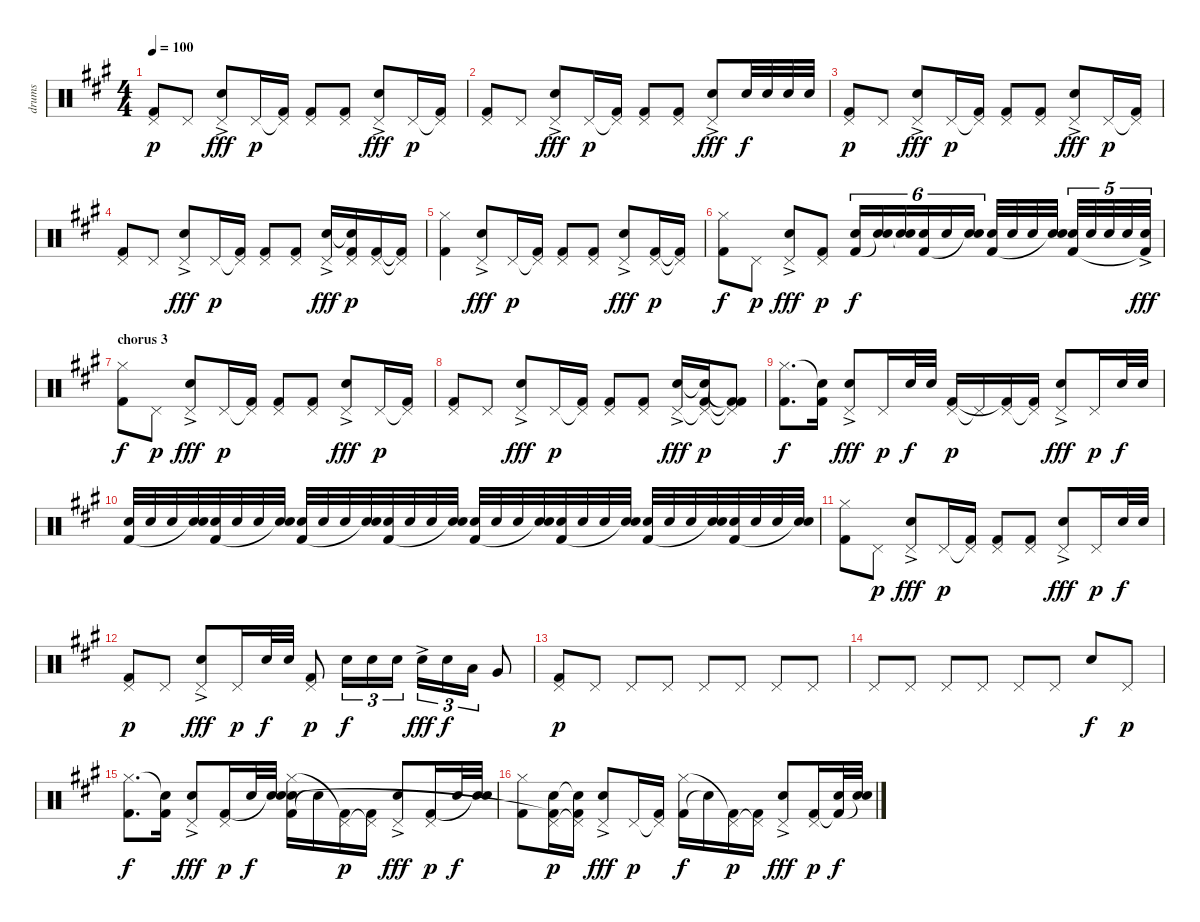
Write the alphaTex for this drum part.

\track ("drums" "drums") {instrument percussion}
\staff {score}
\articulation defaults
\ts (4 4)
\tempo 100
\clef neutral
\ks a
("Pedal Hi-Hat (hit)" "Kick (hit) 2").8{dy p} "Pedal Hi-Hat (hit)".8 ("Pedal Hi-Hat (hit)" "Snare (hit) 2"{ac}).8{dy fff} "Pedal Hi-Hat (hit)".16{dy p} ("Pedal Hi-Hat (hit)"{t} "Kick (hit) 2").16 ("Pedal Hi-Hat (hit)" "Kick (hit) 2").8 ("Pedal Hi-Hat (hit)" "Kick (hit) 2").8 ("Pedal Hi-Hat (hit)" "Snare (hit) 2"{ac}).8{dy fff} "Pedal Hi-Hat (hit)".16{dy p} ("Pedal Hi-Hat (hit)"{t} "Kick (hit) 2").16 |
("Pedal Hi-Hat (hit)" "Kick (hit) 2").8 "Pedal Hi-Hat (hit)".8 ("Pedal Hi-Hat (hit)" "Snare (hit) 2"{ac}).8{dy fff} "Pedal Hi-Hat (hit)".16{dy p} ("Pedal Hi-Hat (hit)"{t} "Kick (hit) 2").16 ("Pedal Hi-Hat (hit)" "Kick (hit) 2").8 ("Pedal Hi-Hat (hit)" "Kick (hit) 2").8 ("Pedal Hi-Hat (hit)" "Snare (hit) 2"{ac}).8{dy fff} "Snare (hit) 2".32{dy f} "Snare (hit) 2".32 "Snare (hit) 2".32 "Snare (hit) 2".32 |
("Pedal Hi-Hat (hit)" "Kick (hit) 2").8{dy p} "Pedal Hi-Hat (hit)".8 ("Pedal Hi-Hat (hit)" "Snare (hit) 2"{ac}).8{dy fff} "Pedal Hi-Hat (hit)".16{dy p} ("Pedal Hi-Hat (hit)"{t} "Kick (hit) 2").16 ("Pedal Hi-Hat (hit)" "Kick (hit) 2").8 ("Pedal Hi-Hat (hit)" "Kick (hit) 2").8 ("Pedal Hi-Hat (hit)" "Snare (hit) 2"{ac}).8{dy fff} "Pedal Hi-Hat (hit)".16{dy p} ("Pedal Hi-Hat (hit)"{t} "Kick (hit) 2").16 |
("Pedal Hi-Hat (hit)" "Kick (hit) 2").8 "Pedal Hi-Hat (hit)".8 ("Pedal Hi-Hat (hit)" "Snare (hit) 2"{ac}).8{dy fff} "Pedal Hi-Hat (hit)".16{dy p} ("Pedal Hi-Hat (hit)"{t} "Kick (hit) 2").16 ("Pedal Hi-Hat (hit)" "Kick (hit) 2").8 ("Pedal Hi-Hat (hit)" "Kick (hit) 2").8 ("Pedal Hi-Hat (hit)" "Snare (hit) 2"{ac}).16{dy fff} ("Pedal Hi-Hat (hit)" "Snare (hit)"{t} "Kick (hit) 2").16{dy p} ("Pedal Hi-Hat (hit)" "Kick (hit) 2").16 ("Pedal Hi-Hat (hit)"{t} "Kick (hit) 2"{t}).16 |
("Hi-Hat (closed)" "Kick (hit) 2").4 ("Pedal Hi-Hat (hit)" "Snare (hit) 2"{ac}).8{dy fff} "Pedal Hi-Hat (hit)".16{dy p} ("Pedal Hi-Hat (hit)"{t} "Kick (hit) 2").16 ("Pedal Hi-Hat (hit)" "Kick (hit) 2").8 ("Pedal Hi-Hat (hit)" "Kick (hit) 2").8 ("Pedal Hi-Hat (hit)" "Snare (hit) 2"{ac}).8{dy fff} ("Pedal Hi-Hat (hit)" "Kick (hit) 2").16{dy p} ("Pedal Hi-Hat (hit)"{t} "Kick (hit) 2"{t}).16 |
("Hi-Hat (closed)" "Kick (hit) 2").8{dy f} "Pedal Hi-Hat (hit)".8{dy p} ("Pedal Hi-Hat (hit)" "Snare (hit) 2"{ac}).8{dy fff} ("Pedal Hi-Hat (hit)" "Kick (hit) 2").8{dy p} ("Snare (hit) 2" "Kick (hit) 2").16{tu (6 4) dy f} ("Snare (hit) 2" "Snare (hit)"{t}).16{tu (6 4)} ("Snare (hit) 2" "Snare (hit)"{t}).16{tu (6 4)} ("Snare (hit) 2" "Kick (hit) 2").16{tu (6 4)} "Snare (hit) 2".16{tu (6 4)} ("Snare (hit) 2" "Snare (hit)"{t}).16{tu (6 4)} ("Snare (hit) 2" "Kick (hit) 2").32 "Snare (hit) 2".32 "Snare (hit) 2".32 ("Snare (hit) 2" "Snare (hit)"{t}).32 ("Snare (hit) 2" "Kick (hit) 2").32{tu (5 4)} "Snare (hit) 2".32{tu (5 4)} "Snare (hit) 2".32{tu (5 4)} "Snare (hit) 2".32{tu (5 4)} ("Snare (hit) 2"{ac} "Kick (hit) 2"{t}).32{tu (5 4) dy fff} |
\section ("" "chorus 3")
("Hi-Hat (closed)" "Kick (hit) 2").8{dy f} "Pedal Hi-Hat (hit)".8{dy p} ("Pedal Hi-Hat (hit)" "Snare (hit) 2"{ac}).8{dy fff} "Pedal Hi-Hat (hit)".16{dy p} ("Pedal Hi-Hat (hit)"{t} "Kick (hit) 2").16 ("Pedal Hi-Hat (hit)" "Kick (hit) 2").8 ("Pedal Hi-Hat (hit)" "Kick (hit) 2").8 ("Pedal Hi-Hat (hit)" "Snare (hit) 2"{ac}).8{dy fff} "Pedal Hi-Hat (hit)".16{dy p} ("Pedal Hi-Hat (hit)"{t} "Kick (hit) 2").16 |
("Pedal Hi-Hat (hit)" "Kick (hit) 2").8 "Pedal Hi-Hat (hit)".8 ("Pedal Hi-Hat (hit)" "Snare (hit) 2"{ac}).8{dy fff} "Pedal Hi-Hat (hit)".16{dy p} ("Pedal Hi-Hat (hit)"{t} "Kick (hit) 2").16 ("Pedal Hi-Hat (hit)" "Kick (hit) 2").8 ("Pedal Hi-Hat (hit)" "Kick (hit) 2").8 ("Pedal Hi-Hat (hit)" "Snare (hit) 2"{ac}).16{dy fff} ("Pedal Hi-Hat (hit)"{t} "Snare (hit)"{t} "Kick (hit) 2").16{dy p} ("Pedal Hi-Hat (hit)"{t} "Kick (hit) 2"{t} "Kick (hit) 2"{t}).8 |
("Hi-Hat (closed)" "Kick (hit) 2").8{d dy f} ("Snare (hit)"{t} "Kick (hit) 2").16 ("Pedal Hi-Hat (hit)" "Snare (hit) 2"{ac}).8{dy fff} "Pedal Hi-Hat (hit)".16{dy p} "Snare (hit) 2".32{dy f} "Snare (hit) 2".32 ("Pedal Hi-Hat (hit)" "Kick (hit) 2").16{dy p} "Pedal Hi-Hat (hit)"{t}.16 ("Pedal Hi-Hat (hit)" "Kick (hit) 2"{t}).16 ("Pedal Hi-Hat (hit)"{t} "Kick (hit) 2").16 ("Pedal Hi-Hat (hit)" "Snare (hit) 2"{ac}).8{dy fff} "Pedal Hi-Hat (hit)".16{dy p} "Snare (hit) 2".32{dy f} "Snare (hit) 2".32 |
("Snare (hit) 2" "Kick (hit) 2").32 "Snare (hit) 2".32 "Snare (hit) 2".32 ("Snare (hit) 2" "Snare (hit)"{t}).32 ("Snare (hit) 2" "Kick (hit) 2").32 "Snare (hit) 2".32 "Snare (hit) 2".32 ("Snare (hit) 2" "Snare (hit)"{t}).32 ("Snare (hit) 2" "Kick (hit) 2").32 "Snare (hit) 2".32 "Snare (hit) 2".32 ("Snare (hit) 2" "Snare (hit)"{t}).32 ("Snare (hit) 2" "Kick (hit) 2").32 "Snare (hit) 2".32 "Snare (hit) 2".32 ("Snare (hit) 2" "Snare (hit)"{t}).32 ("Snare (hit) 2" "Kick (hit) 2").32 "Snare (hit) 2".32 "Snare (hit) 2".32 ("Snare (hit) 2" "Snare (hit)"{t}).32 ("Snare (hit) 2" "Kick (hit) 2").32 "Snare (hit) 2".32 "Snare (hit) 2".32 ("Snare (hit) 2" "Snare (hit)"{t}).32 ("Snare (hit) 2" "Kick (hit) 2").32 "Snare (hit) 2".32 "Snare (hit) 2".32 ("Snare (hit) 2" "Snare (hit)"{t}).32 ("Snare (hit) 2" "Kick (hit) 2").32 "Snare (hit) 2".32 "Snare (hit) 2".32 ("Snare (hit) 2" "Snare (hit)"{t}).32 |
("Hi-Hat (closed)" "Kick (hit) 2").8 "Pedal Hi-Hat (hit)".8{dy p} ("Pedal Hi-Hat (hit)" "Snare (hit) 2"{ac}).8{dy fff} "Pedal Hi-Hat (hit)".16{dy p} ("Pedal Hi-Hat (hit)"{t} "Kick (hit) 2").16 ("Pedal Hi-Hat (hit)" "Kick (hit) 2").8 ("Pedal Hi-Hat (hit)" "Kick (hit) 2").8 ("Pedal Hi-Hat (hit)" "Snare (hit) 2"{ac}).8{dy fff} "Pedal Hi-Hat (hit)".16{dy p} "Snare (hit) 2".32{dy f} "Snare (hit) 2".32 |
("Pedal Hi-Hat (hit)" "Kick (hit) 2").8{dy p} "Pedal Hi-Hat (hit)".8 ("Pedal Hi-Hat (hit)" "Snare (hit) 2"{ac}).8{dy fff} "Pedal Hi-Hat (hit)".16{dy p} "Snare (hit) 2".32{dy f} "Snare (hit) 2".32 ("Pedal Hi-Hat (hit)" "Kick (hit) 2").8{dy p} "Snare (hit) 2".16{tu (3 2) dy f} "Snare (hit) 2".16{tu (3 2)} "Snare (hit) 2".16{tu (3 2)} "Snare (hit) 2"{ac}.16{tu (3 2) dy fff} "Snare (hit) 2".16{tu (3 2) dy f} "Low Tom (hit)".16{tu (3 2)} "Very Low Tom (hit)".8 |
("Pedal Hi-Hat (hit)" "Kick (hit) 2").8{dy p} "Pedal Hi-Hat (hit)".8 "Pedal Hi-Hat (hit)".8 "Pedal Hi-Hat (hit)".8 "Pedal Hi-Hat (hit)".8 "Pedal Hi-Hat (hit)".8 "Pedal Hi-Hat (hit)".8 "Pedal Hi-Hat (hit)".8 |
"Pedal Hi-Hat (hit)".8 "Pedal Hi-Hat (hit)".8 "Pedal Hi-Hat (hit)".8 "Pedal Hi-Hat (hit)".8 "Pedal Hi-Hat (hit)".8 "Pedal Hi-Hat (hit)".8 "Snare (hit) 2".8{dy f} "Pedal Hi-Hat (hit)".8{dy p} |
("Hi-Hat (closed)" "Kick (hit) 2").8{d dy f} ("Snare (hit)"{t} "Kick (hit) 2").16 ("Pedal Hi-Hat (hit)" "Snare (hit) 2"{ac}).8{dy fff} ("Pedal Hi-Hat (hit)" "Kick (hit) 2").16{dy p} "Snare (hit) 2".32{dy f} ("Snare (hit) 2" "Snare (hit)"{t}).32 ("Kick (hit) 2" "Hi-Hat (closed)" "Snare (hit) 2").16 "Snare (hit)"{t}.16 ("Pedal Hi-Hat (hit)" "Kick (hit) 2"{t}).16{dy p} ("Pedal Hi-Hat (hit)"{t} "Kick (hit) 2").16 ("Pedal Hi-Hat (hit)" "Snare (hit) 2"{ac}).8{dy fff} ("Pedal Hi-Hat (hit)" "Kick (hit) 2").16{dy p} "Snare (hit) 2".32{dy f} ("Snare (hit) 2" "Snare (hit)"{t}).32 |
("Hi-Hat (closed)" "Kick (hit) 2").8 ("Pedal Hi-Hat (hit)" "Snare (hit) 2" "Kick (hit) 2"{t}).16{dy p} ("Pedal Hi-Hat (hit)"{t} "Snare (hit) 2"{t} "Kick (hit) 2").16 ("Pedal Hi-Hat (hit)" "Snare (hit) 2"{ac}).8{dy fff} "Pedal Hi-Hat (hit)".16{dy p} ("Pedal Hi-Hat (hit)"{t} "Kick (hit) 2").16 ("Kick (hit) 2" "Hi-Hat (closed)").16{dy f} "Snare (hit)"{t}.16 ("Pedal Hi-Hat (hit)" "Kick (hit) 2"{t}).16{dy p} ("Pedal Hi-Hat (hit)"{t} "Kick (hit) 2").16 ("Pedal Hi-Hat (hit)" "Snare (hit) 2"{ac}).8{dy fff} ("Pedal Hi-Hat (hit)" "Kick (hit) 2").16{dy p} ("Snare (hit) 2" "Kick (hit) 2"{t}).32{dy f} ("Snare (hit) 2" "Snare (hit)"{t}).32
